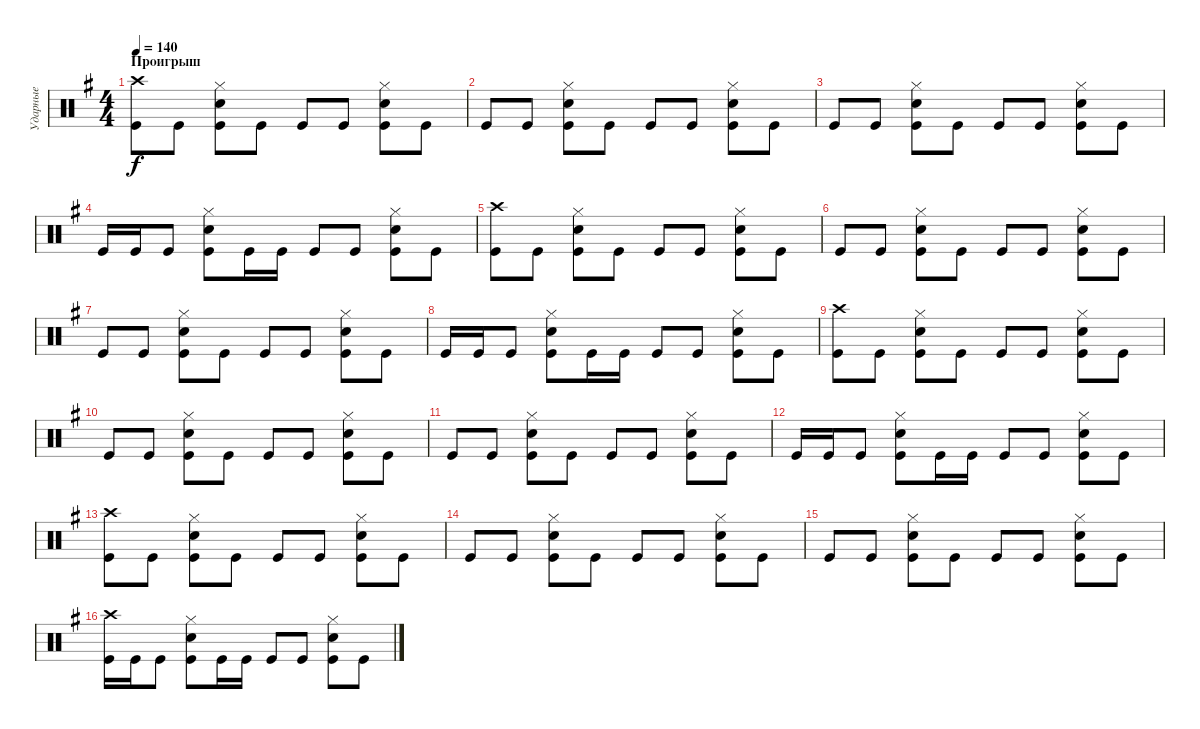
\track ("Ударные" "Ударные") {instrument percussion}
\staff {score}
\articulation defaults
\ts (4 4)
\section ("" "Проигрыш")
\tempo 140
\clef neutral
\ks g
("Kick (hit)" "Crash high (hit)").8{dy f} "Kick (hit)".8 ("Kick (hit)" "Snare (hit) 2" "Hi-Hat (closed)").8 "Kick (hit)".8 "Kick (hit)".8 "Kick (hit)".8 ("Kick (hit)" "Snare (hit) 2" "Hi-Hat (closed)").8 "Kick (hit)".8 |
"Kick (hit)".8 "Kick (hit)".8 ("Kick (hit)" "Snare (hit) 2" "Hi-Hat (closed)").8 "Kick (hit)".8 "Kick (hit)".8 "Kick (hit)".8 ("Kick (hit)" "Snare (hit) 2" "Hi-Hat (closed)").8 "Kick (hit)".8 |
"Kick (hit)".8 "Kick (hit)".8 ("Kick (hit)" "Snare (hit) 2" "Hi-Hat (closed)").8 "Kick (hit)".8 "Kick (hit)".8 "Kick (hit)".8 ("Kick (hit)" "Snare (hit) 2" "Hi-Hat (closed)").8 "Kick (hit)".8 |
"Kick (hit)".16 "Kick (hit)".16 "Kick (hit)".8 ("Kick (hit)" "Snare (hit) 2" "Hi-Hat (closed)").8 "Kick (hit)".16 "Kick (hit)".16 "Kick (hit)".8 "Kick (hit)".8 ("Kick (hit)" "Snare (hit) 2" "Hi-Hat (closed)").8 "Kick (hit)".8 |
("Kick (hit)" "Crash high (hit)").8 "Kick (hit)".8 ("Kick (hit)" "Snare (hit) 2" "Hi-Hat (closed)").8 "Kick (hit)".8 "Kick (hit)".8 "Kick (hit)".8 ("Kick (hit)" "Snare (hit) 2" "Hi-Hat (closed)").8 "Kick (hit)".8 |
"Kick (hit)".8 "Kick (hit)".8 ("Kick (hit)" "Snare (hit) 2" "Hi-Hat (closed)").8 "Kick (hit)".8 "Kick (hit)".8 "Kick (hit)".8 ("Kick (hit)" "Snare (hit) 2" "Hi-Hat (closed)").8 "Kick (hit)".8 |
"Kick (hit)".8 "Kick (hit)".8 ("Kick (hit)" "Snare (hit) 2" "Hi-Hat (closed)").8 "Kick (hit)".8 "Kick (hit)".8 "Kick (hit)".8 ("Kick (hit)" "Snare (hit) 2" "Hi-Hat (closed)").8 "Kick (hit)".8 |
"Kick (hit)".16 "Kick (hit)".16 "Kick (hit)".8 ("Kick (hit)" "Snare (hit) 2" "Hi-Hat (closed)").8 "Kick (hit)".16 "Kick (hit)".16 "Kick (hit)".8 "Kick (hit)".8 ("Kick (hit)" "Snare (hit) 2" "Hi-Hat (closed)").8 "Kick (hit)".8 |
("Kick (hit)" "Crash high (hit)").8 "Kick (hit)".8 ("Kick (hit)" "Snare (hit) 2" "Hi-Hat (closed)").8 "Kick (hit)".8 "Kick (hit)".8 "Kick (hit)".8 ("Kick (hit)" "Snare (hit) 2" "Hi-Hat (closed)").8 "Kick (hit)".8 |
"Kick (hit)".8 "Kick (hit)".8 ("Kick (hit)" "Snare (hit) 2" "Hi-Hat (closed)").8 "Kick (hit)".8 "Kick (hit)".8 "Kick (hit)".8 ("Kick (hit)" "Snare (hit) 2" "Hi-Hat (closed)").8 "Kick (hit)".8 |
"Kick (hit)".8 "Kick (hit)".8 ("Kick (hit)" "Snare (hit) 2" "Hi-Hat (closed)").8 "Kick (hit)".8 "Kick (hit)".8 "Kick (hit)".8 ("Kick (hit)" "Snare (hit) 2" "Hi-Hat (closed)").8 "Kick (hit)".8 |
"Kick (hit)".16 "Kick (hit)".16 "Kick (hit)".8 ("Kick (hit)" "Snare (hit) 2" "Hi-Hat (closed)").8 "Kick (hit)".16 "Kick (hit)".16 "Kick (hit)".8 "Kick (hit)".8 ("Kick (hit)" "Snare (hit) 2" "Hi-Hat (closed)").8 "Kick (hit)".8 |
("Kick (hit)" "Crash high (hit)").8 "Kick (hit)".8 ("Kick (hit)" "Snare (hit) 2" "Hi-Hat (closed)").8 "Kick (hit)".8 "Kick (hit)".8 "Kick (hit)".8 ("Kick (hit)" "Snare (hit) 2" "Hi-Hat (closed)").8 "Kick (hit)".8 |
"Kick (hit)".8 "Kick (hit)".8 ("Kick (hit)" "Snare (hit) 2" "Hi-Hat (closed)").8 "Kick (hit)".8 "Kick (hit)".8 "Kick (hit)".8 ("Kick (hit)" "Snare (hit) 2" "Hi-Hat (closed)").8 "Kick (hit)".8 |
"Kick (hit)".8 "Kick (hit)".8 ("Kick (hit)" "Snare (hit) 2" "Hi-Hat (closed)").8 "Kick (hit)".8 "Kick (hit)".8 "Kick (hit)".8 ("Kick (hit)" "Snare (hit) 2" "Hi-Hat (closed)").8 "Kick (hit)".8 |
("Kick (hit)" "Crash high (hit)").16 "Kick (hit)".16 "Kick (hit)".8 ("Kick (hit)" "Snare (hit) 2" "Hi-Hat (closed)").8 "Kick (hit)".16 "Kick (hit)".16 "Kick (hit)".8 "Kick (hit)".8 ("Kick (hit)" "Snare (hit) 2" "Hi-Hat (closed)").8 "Kick (hit)".8
